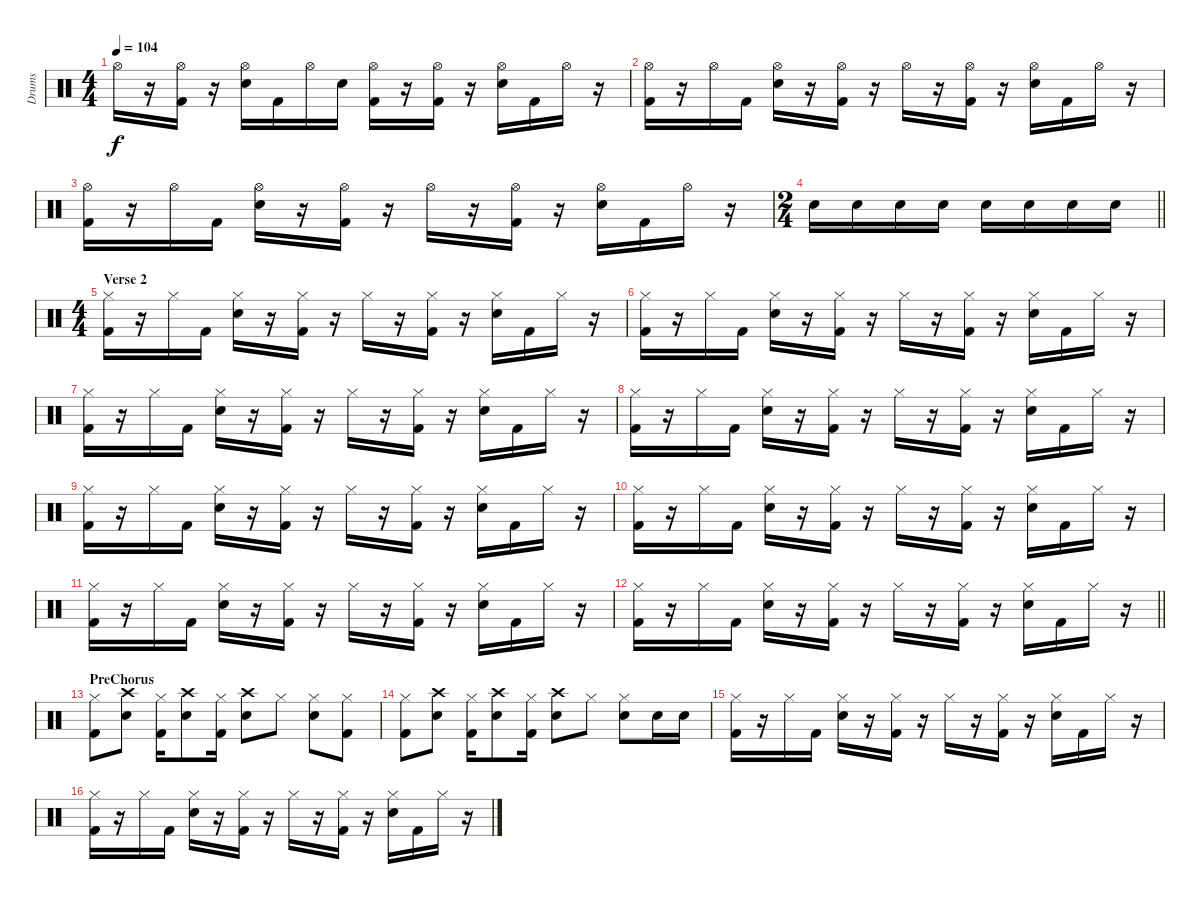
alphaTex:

\track ("Drums" "Drums") {instrument percussion}
\staff {score}
\articulation defaults
\ts (4 4)
\tempo 104
\clef neutral
\ks c "Hi-Hat (open)".16{dy f}
r.16 ("Hi-Hat (open)" "Kick (hit) 2").16 r.16 ("Hi-Hat (open)" "Snare (hit) 2").16 "Kick (hit) 2".16 "Hi-Hat (open)".16 "Snare (hit) 2".16 ("Hi-Hat (open)" "Kick (hit) 2").16 r.16 ("Hi-Hat (open)" "Kick (hit) 2").16 r.16 ("Hi-Hat (open)" "Snare (hit) 2").16 "Kick (hit) 2".16 "Hi-Hat (open)".16 r.16 |
("Hi-Hat (open)" "Kick (hit) 2").16 r.16 "Hi-Hat (open)".16 "Kick (hit) 2".16 ("Hi-Hat (open)" "Snare (hit) 2").16 r.16 ("Hi-Hat (open)" "Kick (hit) 2").16 r.16 "Hi-Hat (open)".16 r.16 ("Hi-Hat (open)" "Kick (hit) 2").16 r.16 ("Hi-Hat (open)" "Snare (hit) 2").16 "Kick (hit) 2".16 "Hi-Hat (open)".16 r.16 |
("Hi-Hat (open)" "Kick (hit) 2").16 r.16 "Hi-Hat (open)".16 "Kick (hit) 2".16 ("Hi-Hat (open)" "Snare (hit) 2").16 r.16 ("Hi-Hat (open)" "Kick (hit) 2").16 r.16 "Hi-Hat (open)".16 r.16 ("Hi-Hat (open)" "Kick (hit) 2").16 r.16 ("Hi-Hat (open)" "Snare (hit) 2").16 "Kick (hit) 2".16 "Hi-Hat (open)".16 r.16 |
\ts (2 4)
\barLineRight lightlight "Snare (hit) 2".16 "Snare (hit) 2".16 "Snare (hit) 2".16 "Snare (hit) 2".16 "Snare (hit) 2".16 "Snare (hit) 2".16 "Snare (hit) 2".16 "Snare (hit) 2".16
|
\ts (4 4)
\section ("" "Verse 2")
("Hi-Hat (closed)" "Kick (hit) 2").16 r.16 "Hi-Hat (closed)".16 "Kick (hit) 2".16 ("Hi-Hat (closed)" "Snare (hit) 2").16 r.16 ("Hi-Hat (closed)" "Kick (hit) 2").16 r.16 "Hi-Hat (closed)".16 r.16 ("Hi-Hat (closed)" "Kick (hit) 2").16 r.16 ("Hi-Hat (closed)" "Snare (hit) 2").16 "Kick (hit) 2".16 "Hi-Hat (closed)".16 r.16 |
("Hi-Hat (closed)" "Kick (hit) 2").16 r.16 "Hi-Hat (closed)".16 "Kick (hit) 2".16 ("Hi-Hat (closed)" "Snare (hit) 2").16 r.16 ("Hi-Hat (closed)" "Kick (hit) 2").16 r.16 "Hi-Hat (closed)".16 r.16 ("Hi-Hat (closed)" "Kick (hit) 2").16 r.16 ("Hi-Hat (closed)" "Snare (hit) 2").16 "Kick (hit) 2".16 "Hi-Hat (closed)".16 r.16 |
("Hi-Hat (closed)" "Kick (hit) 2").16 r.16 "Hi-Hat (closed)".16 "Kick (hit) 2".16 ("Hi-Hat (closed)" "Snare (hit) 2").16 r.16 ("Hi-Hat (closed)" "Kick (hit) 2").16 r.16 "Hi-Hat (closed)".16 r.16 ("Hi-Hat (closed)" "Kick (hit) 2").16 r.16 ("Hi-Hat (closed)" "Snare (hit) 2").16 "Kick (hit) 2".16 "Hi-Hat (closed)".16 r.16 |
("Hi-Hat (closed)" "Kick (hit) 2").16 r.16 "Hi-Hat (closed)".16 "Kick (hit) 2".16 ("Hi-Hat (closed)" "Snare (hit) 2").16 r.16 ("Hi-Hat (closed)" "Kick (hit) 2").16 r.16 "Hi-Hat (closed)".16 r.16 ("Hi-Hat (closed)" "Kick (hit) 2").16 r.16 ("Hi-Hat (closed)" "Snare (hit) 2").16 "Kick (hit) 2".16 "Hi-Hat (closed)".16 r.16 |
("Hi-Hat (closed)" "Kick (hit) 2").16 r.16 "Hi-Hat (closed)".16 "Kick (hit) 2".16 ("Hi-Hat (closed)" "Snare (hit) 2").16 r.16 ("Hi-Hat (closed)" "Kick (hit) 2").16 r.16 "Hi-Hat (closed)".16 r.16 ("Hi-Hat (closed)" "Kick (hit) 2").16 r.16 ("Hi-Hat (closed)" "Snare (hit) 2").16 "Kick (hit) 2".16 "Hi-Hat (closed)".16 r.16 |
("Hi-Hat (closed)" "Kick (hit) 2").16 r.16 "Hi-Hat (closed)".16 "Kick (hit) 2".16 ("Hi-Hat (closed)" "Snare (hit) 2").16 r.16 ("Hi-Hat (closed)" "Kick (hit) 2").16 r.16 "Hi-Hat (closed)".16 r.16 ("Hi-Hat (closed)" "Kick (hit) 2").16 r.16 ("Hi-Hat (closed)" "Snare (hit) 2").16 "Kick (hit) 2".16 "Hi-Hat (closed)".16 r.16 |
("Hi-Hat (closed)" "Kick (hit) 2").16 r.16 "Hi-Hat (closed)".16 "Kick (hit) 2".16 ("Hi-Hat (closed)" "Snare (hit) 2").16 r.16 ("Hi-Hat (closed)" "Kick (hit) 2").16 r.16 "Hi-Hat (closed)".16 r.16 ("Hi-Hat (closed)" "Kick (hit) 2").16 r.16 ("Hi-Hat (closed)" "Snare (hit) 2").16 "Kick (hit) 2".16 "Hi-Hat (closed)".16 r.16 |
\barLineRight lightlight
("Hi-Hat (closed)" "Kick (hit) 2").16 r.16 "Hi-Hat (closed)".16 "Kick (hit) 2".16 ("Hi-Hat (closed)" "Snare (hit) 2").16 r.16 ("Hi-Hat (closed)" "Kick (hit) 2").16 r.16 "Hi-Hat (closed)".16 r.16 ("Hi-Hat (closed)" "Kick (hit) 2").16 r.16 ("Hi-Hat (closed)" "Snare (hit) 2").16 "Kick (hit) 2".16 "Hi-Hat (closed)".16 r.16 |
\section ("" "PreChorus")
("Hi-Hat (closed)" "Kick (hit) 2").8 ("Crash high (hit)" "Snare (hit) 2").8 ("Hi-Hat (closed)" "Kick (hit) 2").16 ("Crash high (hit)" "Snare (hit) 2").8 ("Hi-Hat (closed)" "Kick (hit) 2").16 ("Crash high (hit)" "Snare (hit) 2").8 "Hi-Hat (closed)".8 ("Hi-Hat (closed)" "Snare (hit) 2").8 ("Hi-Hat (closed)" "Kick (hit) 2").8 |
("Hi-Hat (closed)" "Kick (hit) 2").8 ("Crash high (hit)" "Snare (hit) 2").8 ("Hi-Hat (closed)" "Kick (hit) 2").16 ("Crash high (hit)" "Snare (hit) 2").8 ("Hi-Hat (closed)" "Kick (hit) 2").16 ("Crash high (hit)" "Snare (hit) 2").8 "Hi-Hat (closed)".8 ("Hi-Hat (closed)" "Snare (hit) 2").8 "Snare (hit) 2".16 "Snare (hit) 2".16 |
("Hi-Hat (closed)" "Kick (hit) 2").16 r.16 "Hi-Hat (closed)".16 "Kick (hit) 2".16 ("Hi-Hat (closed)" "Snare (hit) 2").16 r.16 ("Hi-Hat (closed)" "Kick (hit) 2").16 r.16 "Hi-Hat (closed)".16 r.16 ("Hi-Hat (closed)" "Kick (hit) 2").16 r.16 ("Hi-Hat (closed)" "Snare (hit) 2").16 "Kick (hit) 2".16 "Hi-Hat (closed)".16 r.16 |
("Hi-Hat (closed)" "Kick (hit) 2").16 r.16 "Hi-Hat (closed)".16 "Kick (hit) 2".16 ("Hi-Hat (closed)" "Snare (hit) 2").16 r.16 ("Hi-Hat (closed)" "Kick (hit) 2").16 r.16 "Hi-Hat (closed)".16 r.16 ("Hi-Hat (closed)" "Kick (hit) 2").16 r.16 ("Hi-Hat (closed)" "Snare (hit) 2").16 "Kick (hit) 2".16 "Hi-Hat (closed)".16 r.16
